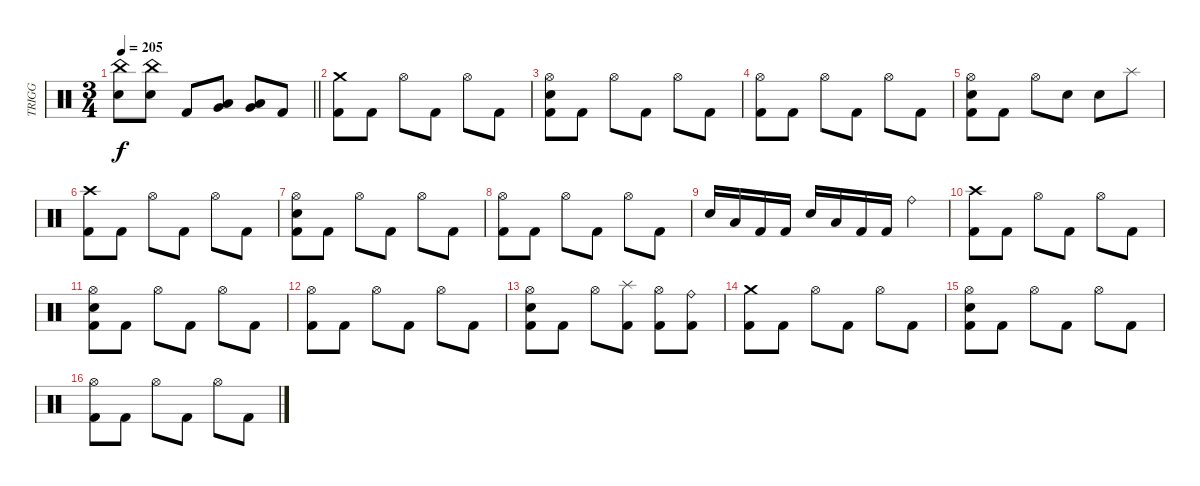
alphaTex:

\track ("TRIGG" "TRIGG") {instrument percussion}
\staff {score}
\articulation defaults
\ts (3 4)
\tempo 205
\clef neutral
\barLineRight lightlight
\ks c
("China (hit)" "Electric Snare (hit)").8{dy f} ("China (hit)" "Electric Snare (hit)").8 "Kick (hit) 2".8 ("Low Tom (hit)" "Very Low Tom (hit)").8 ("Low Tom (hit)" "Very Low Tom (hit)").8 "Kick (hit) 2".8 |
("Crash medium (hit)" "Kick (hit) 2").8 "Kick (hit) 2".8 "Hi-Hat (open)".8 "Kick (hit) 2".8 "Hi-Hat (open)".8 "Kick (hit) 2".8 |
("Hi-Hat (open)" "Electric Snare (hit)" "Kick (hit) 2").8 "Kick (hit) 2".8 "Hi-Hat (open)".8 "Kick (hit) 2".8 "Hi-Hat (open)".8 "Kick (hit) 2".8 |
("Hi-Hat (open)" "Kick (hit) 2").8 "Kick (hit) 2".8 "Hi-Hat (open)".8 "Kick (hit) 2".8 "Hi-Hat (open)".8 "Kick (hit) 2".8 |
("Hi-Hat (open)" "Electric Snare (hit)" "Kick (hit) 2").8 "Kick (hit) 2".8 "Hi-Hat (open)".8 "Electric Snare (hit)".8 "Electric Snare (hit)".8 "Splash (hit)".8 |
("Crash high (hit)" "Kick (hit) 2").8 "Kick (hit) 2".8 "Hi-Hat (open)".8 "Kick (hit) 2".8 "Hi-Hat (open)".8 "Kick (hit) 2".8 |
("Hi-Hat (open)" "Electric Snare (hit)" "Kick (hit) 2").8 "Kick (hit) 2".8 "Hi-Hat (open)".8 "Kick (hit) 2".8 "Hi-Hat (open)".8 "Kick (hit) 2".8 |
("Hi-Hat (open)" "Kick (hit) 2").8 "Kick (hit) 2".8 "Hi-Hat (open)".8 "Kick (hit) 2".8 "Hi-Hat (open)".8 "Kick (hit) 2".8 |
"Electric Snare (hit)".16 "Low Tom (hit)".16 "Kick (hit) 2".16 "Kick (hit) 2".16 "Electric Snare (hit)".16 "Low Tom (hit)".16 "Kick (hit) 2".16 "Kick (hit) 2".16 "Ride (bell)".4 |
("Crash high (hit)" "Kick (hit) 2").8 "Kick (hit) 2".8 "Hi-Hat (open)".8 "Kick (hit) 2".8 "Hi-Hat (open)".8 "Kick (hit) 2".8 |
("Hi-Hat (open)" "Electric Snare (hit)" "Kick (hit) 2").8 "Kick (hit) 2".8 "Hi-Hat (open)".8 "Kick (hit) 2".8 "Hi-Hat (open)".8 "Kick (hit) 2".8 |
("Hi-Hat (open)" "Kick (hit) 2").8 "Kick (hit) 2".8 "Hi-Hat (open)".8 "Kick (hit) 2".8 "Hi-Hat (open)".8 "Kick (hit) 2".8 |
("Hi-Hat (open)" "Electric Snare (hit)" "Kick (hit) 2").8 "Kick (hit) 2".8 "Hi-Hat (open)".8 ("Splash (hit)" "Kick (hit) 2").8 ("Hi-Hat (open)" "Kick (hit) 2").8 ("Ride (bell)" "Kick (hit) 2").8 |
("Crash medium (hit)" "Kick (hit) 2").8 "Kick (hit) 2".8 "Hi-Hat (open)".8 "Kick (hit) 2".8 "Hi-Hat (open)".8 "Kick (hit) 2".8 |
("Hi-Hat (open)" "Electric Snare (hit)" "Kick (hit) 2").8 "Kick (hit) 2".8 "Hi-Hat (open)".8 "Kick (hit) 2".8 "Hi-Hat (open)".8 "Kick (hit) 2".8 |
("Hi-Hat (open)" "Kick (hit) 2").8 "Kick (hit) 2".8 "Hi-Hat (open)".8 "Kick (hit) 2".8 "Hi-Hat (open)".8 "Kick (hit) 2".8
